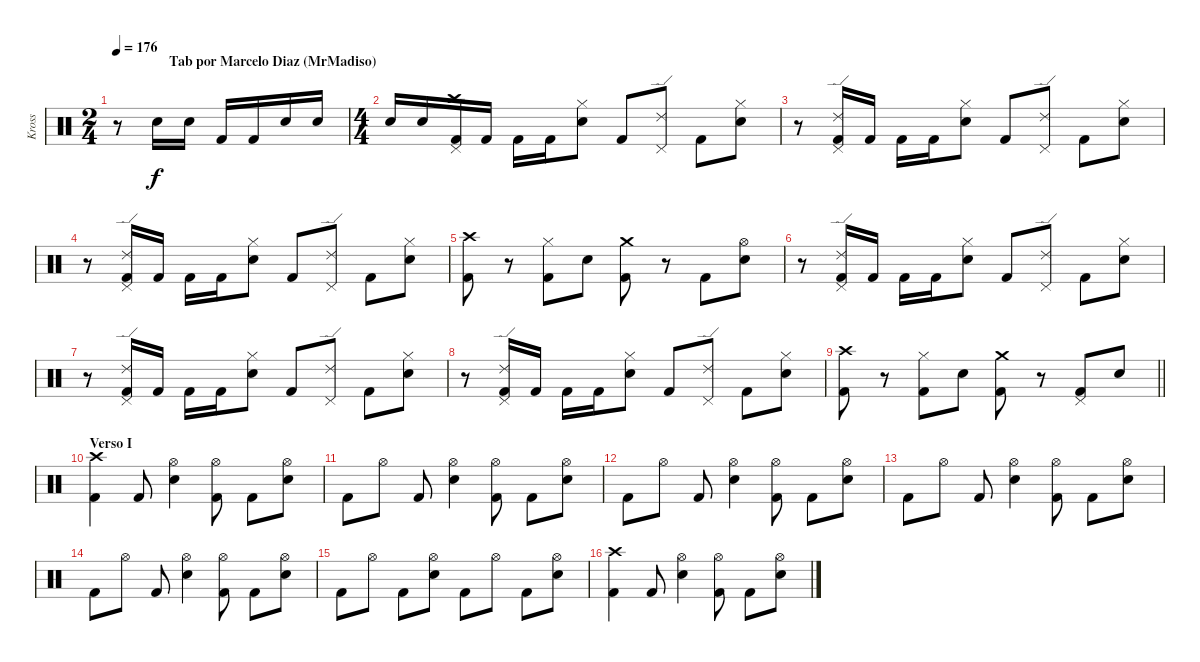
\track ("Kross" "Kross") {instrument percussion}
\staff {score}
\articulation defaults
\ts (2 4)
\section ("" "                Tab por Marcelo Diaz (MrMadiso)")
\tempo 176
\clef neutral
\ks c
r.8{dy f} "Electric Snare (hit)".16 "Electric Snare (hit)".16 "Kick (hit) 2".16 "Kick (hit) 2".16 "Electric Snare (hit)".16 "Electric Snare (hit)".16 |
\ts (4 4)
"Electric Snare (hit)".16 "Electric Snare (hit)".16 ("Crash high (hit)" "Pedal Hi-Hat (hit)" "Kick (hit) 2").16 "Kick (hit) 2".16 "Kick (hit) 2".16 "Kick (hit) 2".16 ("Hi-Hat (closed)" "Electric Snare (hit)").8 "Kick (hit) 2".8 ("Ride (edge) 2" "Pedal Hi-Hat (hit)").8 "Kick (hit) 2".8 ("Hi-Hat (closed)" "Electric Snare (hit)").8 |
r.8 ("Ride (edge) 2" "Pedal Hi-Hat (hit)" "Kick (hit) 2").16 "Kick (hit) 2".16 "Kick (hit) 2".16 "Kick (hit) 2".16 ("Hi-Hat (closed)" "Electric Snare (hit)").8 "Kick (hit) 2".8 ("Ride (edge) 2" "Pedal Hi-Hat (hit)").8 "Kick (hit) 2".8 ("Hi-Hat (closed)" "Electric Snare (hit)").8 |
r.8 ("Ride (edge) 2" "Pedal Hi-Hat (hit)" "Kick (hit) 2").16 "Kick (hit) 2".16 "Kick (hit) 2".16 "Kick (hit) 2".16 ("Hi-Hat (closed)" "Electric Snare (hit)").8 "Kick (hit) 2".8 ("Ride (edge) 2" "Pedal Hi-Hat (hit)").8 "Kick (hit) 2".8 ("Hi-Hat (closed)" "Electric Snare (hit)").8 |
("Crash high (hit)" "Kick (hit) 2").8 r.8 ("Hi-Hat (closed)" "Kick (hit) 2").8 "Electric Snare (hit)".8 ("Crash medium (hit)" "Kick (hit) 2").8 r.8 "Kick (hit) 2".8 ("Hi-Hat (open)" "Electric Snare (hit)").8 |
r.8 ("Ride (edge) 2" "Pedal Hi-Hat (hit)" "Kick (hit) 2").16 "Kick (hit) 2".16 "Kick (hit) 2".16 "Kick (hit) 2".16 ("Hi-Hat (closed)" "Electric Snare (hit)").8 "Kick (hit) 2".8 ("Ride (edge) 2" "Pedal Hi-Hat (hit)").8 "Kick (hit) 2".8 ("Hi-Hat (closed)" "Electric Snare (hit)").8 |
r.8 ("Ride (edge) 2" "Pedal Hi-Hat (hit)" "Kick (hit) 2").16 "Kick (hit) 2".16 "Kick (hit) 2".16 "Kick (hit) 2".16 ("Hi-Hat (closed)" "Electric Snare (hit)").8 "Kick (hit) 2".8 ("Ride (edge) 2" "Pedal Hi-Hat (hit)").8 "Kick (hit) 2".8 ("Hi-Hat (closed)" "Electric Snare (hit)").8 |
r.8 ("Ride (edge) 2" "Pedal Hi-Hat (hit)" "Kick (hit) 2").16 "Kick (hit) 2".16 "Kick (hit) 2".16 "Kick (hit) 2".16 ("Hi-Hat (closed)" "Electric Snare (hit)").8 "Kick (hit) 2".8 ("Ride (edge) 2" "Pedal Hi-Hat (hit)").8 "Kick (hit) 2".8 ("Hi-Hat (closed)" "Electric Snare (hit)").8 |
\barLineRight lightlight
("Crash high (hit)" "Kick (hit) 2").8 r.8 ("Hi-Hat (closed)" "Kick (hit) 2").8 "Electric Snare (hit)".8 ("Crash medium (hit)" "Kick (hit) 2").8 r.8 ("Pedal Hi-Hat (hit)" "Kick (hit) 2").8 "Electric Snare (hit)".8 |
\section ("" "Verso I")
("Crash high (hit)" "Kick (hit) 2").4 "Kick (hit) 2".8 ("Hi-Hat (open)" "Electric Snare (hit)").4 ("Hi-Hat (open)" "Kick (hit) 2").8 "Kick (hit) 2".8 ("Hi-Hat (open)" "Electric Snare (hit)").8 |
"Kick (hit) 2".8 "Hi-Hat (open)".8 "Kick (hit) 2".8 ("Hi-Hat (open)" "Electric Snare (hit)").4 ("Hi-Hat (open)" "Kick (hit) 2").8 "Kick (hit) 2".8 ("Hi-Hat (open)" "Electric Snare (hit)").8 |
"Kick (hit) 2".8 "Hi-Hat (open)".8 "Kick (hit) 2".8 ("Hi-Hat (open)" "Electric Snare (hit)").4 ("Hi-Hat (open)" "Kick (hit) 2").8 "Kick (hit) 2".8 ("Hi-Hat (open)" "Electric Snare (hit)").8 |
"Kick (hit) 2".8 "Hi-Hat (open)".8 "Kick (hit) 2".8 ("Hi-Hat (open)" "Electric Snare (hit)").4 ("Hi-Hat (open)" "Kick (hit) 2").8 "Kick (hit) 2".8 ("Hi-Hat (open)" "Electric Snare (hit)").8 |
"Kick (hit) 2".8 "Hi-Hat (open)".8 "Kick (hit) 2".8 ("Hi-Hat (open)" "Electric Snare (hit)").4 ("Hi-Hat (open)" "Kick (hit) 2").8 "Kick (hit) 2".8 ("Hi-Hat (open)" "Electric Snare (hit)").8 |
"Kick (hit) 2".8 "Hi-Hat (open)".8 "Kick (hit) 2".8 ("Hi-Hat (open)" "Electric Snare (hit)").8 "Kick (hit) 2".8 "Hi-Hat (open)".8 "Kick (hit) 2".8 ("Hi-Hat (open)" "Electric Snare (hit)").8 |
("Crash high (hit)" "Kick (hit) 2").4 "Kick (hit) 2".8 ("Hi-Hat (open)" "Electric Snare (hit)").4 ("Hi-Hat (open)" "Kick (hit) 2").8 "Kick (hit) 2".8 ("Hi-Hat (open)" "Electric Snare (hit)").8
